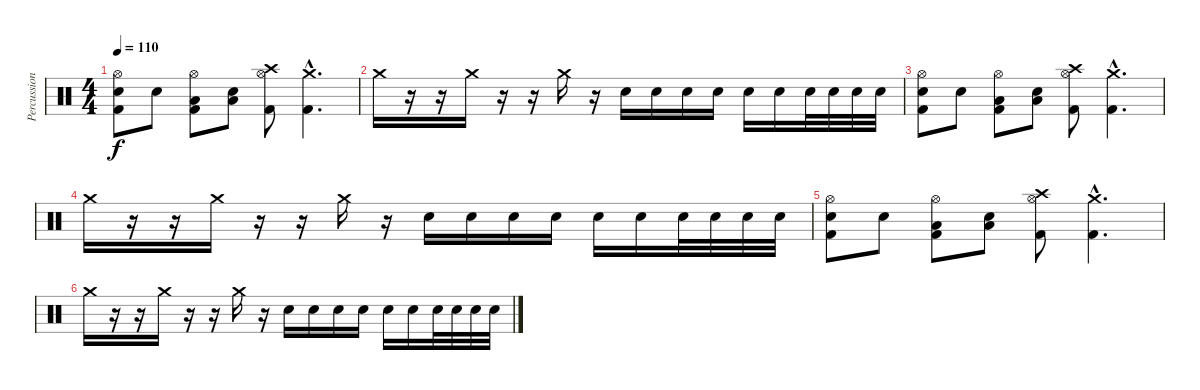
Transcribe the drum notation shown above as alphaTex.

\track ("Percussion" "Percussion") {instrument percussion}
\staff {score}
\articulation defaults
\ts (4 4)
\tempo 110
\clef neutral
\ks c
("Hi-Hat (open)" "Snare (hit) 2" "Kick (hit) 2").8{dy f} "Snare (hit) 2".8 ("Hi-Hat (open)" "Low Tom (hit)" "Kick (hit) 2").8 ("Low Tom (hit)" "Snare (hit) 2").8 ("Hi-Hat (open)" "Crash high (hit)" "Kick (hit) 2").8 ("Crash medium (hit)"{hac} "Kick (hit) 2"{hac}).4{d} |
"Crash medium (hit)".16 r.16 r.16 "Crash medium (hit)".16 r.16 r.16 "Crash medium (hit)".16 r.16 "Electric Snare (hit)".16 "Electric Snare (hit)".16 "Electric Snare (hit)".16 "Electric Snare (hit)".16 "Electric Snare (hit)".16 "Electric Snare (hit)".16 "Electric Snare (hit)".32 "Electric Snare (hit)".32 "Electric Snare (hit)".32 "Electric Snare (hit)".32 |
("Hi-Hat (open)" "Snare (hit) 2" "Kick (hit) 2").8 "Snare (hit) 2".8 ("Hi-Hat (open)" "Low Tom (hit)" "Kick (hit) 2").8 ("Low Tom (hit)" "Snare (hit) 2").8 ("Hi-Hat (open)" "Crash high (hit)" "Kick (hit) 2").8 ("Crash medium (hit)"{hac} "Kick (hit) 2"{hac}).4{d} |
"Crash medium (hit)".16 r.16 r.16 "Crash medium (hit)".16 r.16 r.16 "Crash medium (hit)".16 r.16 "Electric Snare (hit)".16 "Electric Snare (hit)".16 "Electric Snare (hit)".16 "Electric Snare (hit)".16 "Electric Snare (hit)".16 "Electric Snare (hit)".16 "Electric Snare (hit)".32 "Electric Snare (hit)".32 "Electric Snare (hit)".32 "Electric Snare (hit)".32 |
("Hi-Hat (open)" "Snare (hit) 2" "Kick (hit) 2").8 "Snare (hit) 2".8 ("Hi-Hat (open)" "Low Tom (hit)" "Kick (hit) 2").8 ("Low Tom (hit)" "Snare (hit) 2").8 ("Hi-Hat (open)" "Crash high (hit)" "Kick (hit) 2").8 ("Crash medium (hit)"{hac} "Kick (hit) 2"{hac}).4{d} |
"Crash medium (hit)".16 r.16 r.16 "Crash medium (hit)".16 r.16 r.16 "Crash medium (hit)".16 r.16 "Electric Snare (hit)".16 "Electric Snare (hit)".16 "Electric Snare (hit)".16 "Electric Snare (hit)".16 "Electric Snare (hit)".16 "Electric Snare (hit)".16 "Electric Snare (hit)".32 "Electric Snare (hit)".32 "Electric Snare (hit)".32 "Electric Snare (hit)".32
